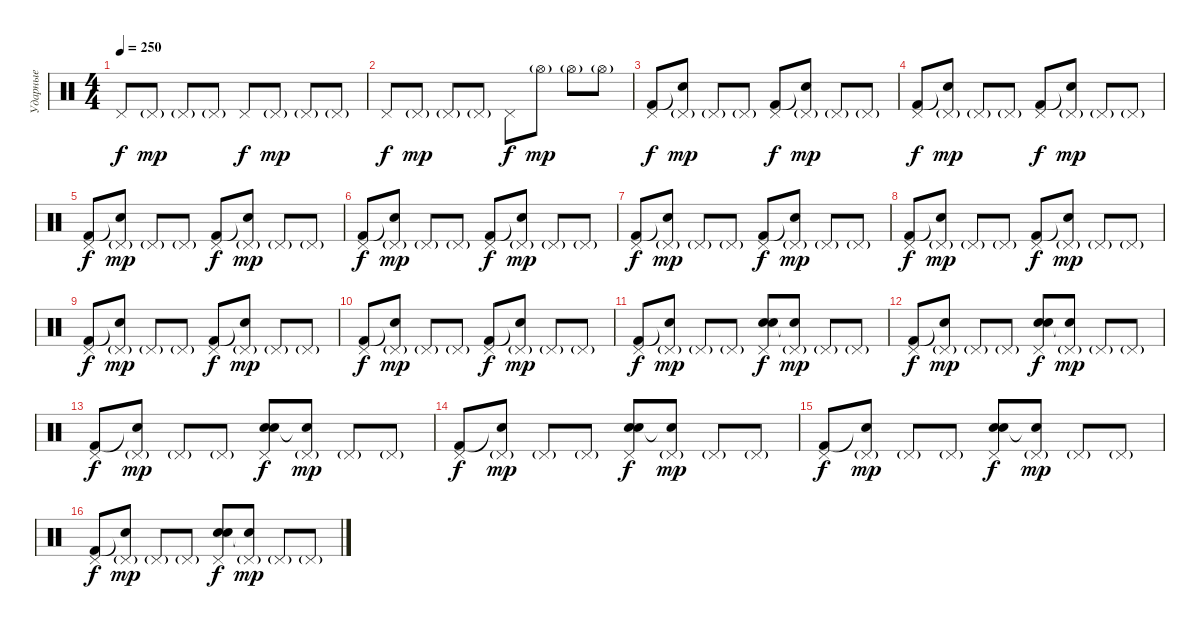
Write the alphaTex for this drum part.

\track ("Ударные" "Ударные") {instrument percussion}
\staff {score}
\articulation defaults
\ts (4 4)
\tempo 250
\clef neutral
\ks c "Pedal Hi-Hat (hit)".8{dy f} "Pedal Hi-Hat (hit)"{g}.8{dy mp} "Pedal Hi-Hat (hit)"{g}.8 "Pedal Hi-Hat (hit)"{g}.8 "Pedal Hi-Hat (hit)".8{dy f} "Pedal Hi-Hat (hit)"{g}.8{dy mp} "Pedal Hi-Hat (hit)"{g}.8 "Pedal Hi-Hat (hit)"{g}.8
|
"Pedal Hi-Hat (hit)".8{dy f} "Pedal Hi-Hat (hit)"{g}.8{dy mp} "Pedal Hi-Hat (hit)"{g}.8 "Pedal Hi-Hat (hit)"{g}.8 "Pedal Hi-Hat (hit)".8{dy f} "Hi-Hat (open)"{g}.8{dy mp} "Hi-Hat (open)"{g}.8 "Hi-Hat (open)"{g}.8 |
("Pedal Hi-Hat (hit)" "Kick (hit) 2").8{dy f} ("Pedal Hi-Hat (hit)"{g} "Snare (hit)"{t}).8{dy mp} "Pedal Hi-Hat (hit)"{g}.8 "Pedal Hi-Hat (hit)"{g}.8 ("Pedal Hi-Hat (hit)" "Kick (hit) 2").8{dy f} ("Pedal Hi-Hat (hit)"{g} "Snare (hit)"{t}).8{dy mp} "Pedal Hi-Hat (hit)"{g}.8 "Pedal Hi-Hat (hit)"{g}.8 |
("Pedal Hi-Hat (hit)" "Kick (hit) 2").8{dy f} ("Pedal Hi-Hat (hit)"{g} "Snare (hit)"{t}).8{dy mp} "Pedal Hi-Hat (hit)"{g}.8 "Pedal Hi-Hat (hit)"{g}.8 ("Pedal Hi-Hat (hit)" "Kick (hit) 2").8{dy f} ("Pedal Hi-Hat (hit)"{g} "Snare (hit)"{t}).8{dy mp} "Pedal Hi-Hat (hit)"{g}.8 "Pedal Hi-Hat (hit)"{g}.8 |
("Pedal Hi-Hat (hit)" "Kick (hit) 2").8{dy f} ("Pedal Hi-Hat (hit)"{g} "Snare (hit)"{t}).8{dy mp} "Pedal Hi-Hat (hit)"{g}.8 "Pedal Hi-Hat (hit)"{g}.8 ("Pedal Hi-Hat (hit)" "Kick (hit) 2").8{dy f} ("Pedal Hi-Hat (hit)"{g} "Snare (hit)"{t}).8{dy mp} "Pedal Hi-Hat (hit)"{g}.8 "Pedal Hi-Hat (hit)"{g}.8 |
("Pedal Hi-Hat (hit)" "Kick (hit) 2").8{dy f} ("Pedal Hi-Hat (hit)"{g} "Snare (hit)"{t}).8{dy mp} "Pedal Hi-Hat (hit)"{g}.8 "Pedal Hi-Hat (hit)"{g}.8 ("Pedal Hi-Hat (hit)" "Kick (hit) 2").8{dy f} ("Pedal Hi-Hat (hit)"{g} "Snare (hit)"{t}).8{dy mp} "Pedal Hi-Hat (hit)"{g}.8 "Pedal Hi-Hat (hit)"{g}.8 |
("Pedal Hi-Hat (hit)" "Kick (hit) 2").8{dy f} ("Pedal Hi-Hat (hit)"{g} "Snare (hit)"{t}).8{dy mp} "Pedal Hi-Hat (hit)"{g}.8 "Pedal Hi-Hat (hit)"{g}.8 ("Pedal Hi-Hat (hit)" "Kick (hit) 2").8{dy f} ("Pedal Hi-Hat (hit)"{g} "Snare (hit)"{t}).8{dy mp} "Pedal Hi-Hat (hit)"{g}.8 "Pedal Hi-Hat (hit)"{g}.8 |
("Pedal Hi-Hat (hit)" "Kick (hit) 2").8{dy f} ("Pedal Hi-Hat (hit)"{g} "Snare (hit)"{t}).8{dy mp} "Pedal Hi-Hat (hit)"{g}.8 "Pedal Hi-Hat (hit)"{g}.8 ("Pedal Hi-Hat (hit)" "Kick (hit) 2").8{dy f} ("Pedal Hi-Hat (hit)"{g} "Snare (hit)"{t}).8{dy mp} "Pedal Hi-Hat (hit)"{g}.8 "Pedal Hi-Hat (hit)"{g}.8 |
("Pedal Hi-Hat (hit)" "Kick (hit) 2").8{dy f} ("Pedal Hi-Hat (hit)"{g} "Snare (hit)"{t}).8{dy mp} "Pedal Hi-Hat (hit)"{g}.8 "Pedal Hi-Hat (hit)"{g}.8 ("Pedal Hi-Hat (hit)" "Kick (hit) 2").8{dy f} ("Pedal Hi-Hat (hit)"{g} "Snare (hit)"{t}).8{dy mp} "Pedal Hi-Hat (hit)"{g}.8 "Pedal Hi-Hat (hit)"{g}.8 |
("Pedal Hi-Hat (hit)" "Kick (hit) 2").8{dy f} ("Pedal Hi-Hat (hit)"{g} "Snare (hit)"{t}).8{dy mp} "Pedal Hi-Hat (hit)"{g}.8 "Pedal Hi-Hat (hit)"{g}.8 ("Pedal Hi-Hat (hit)" "Kick (hit) 2").8{dy f} ("Pedal Hi-Hat (hit)"{g} "Snare (hit)"{t}).8{dy mp} "Pedal Hi-Hat (hit)"{g}.8 "Pedal Hi-Hat (hit)"{g}.8 |
("Pedal Hi-Hat (hit)" "Kick (hit) 2").8{dy f} ("Pedal Hi-Hat (hit)"{g} "Snare (hit)"{t}).8{dy mp} "Pedal Hi-Hat (hit)"{g}.8 "Pedal Hi-Hat (hit)"{g}.8 ("Pedal Hi-Hat (hit)" "Electric Snare (hit)" "Hand Clap (hit)").8{dy f} ("Pedal Hi-Hat (hit)"{g} "Snare (hit)"{t}).8{dy mp} "Pedal Hi-Hat (hit)"{g}.8 "Pedal Hi-Hat (hit)"{g}.8 |
("Pedal Hi-Hat (hit)" "Kick (hit) 2").8{dy f} ("Pedal Hi-Hat (hit)"{g} "Snare (hit)"{t}).8{dy mp} "Pedal Hi-Hat (hit)"{g}.8 "Pedal Hi-Hat (hit)"{g}.8 ("Pedal Hi-Hat (hit)" "Electric Snare (hit)" "Hand Clap (hit)").8{dy f} ("Pedal Hi-Hat (hit)"{g} "Snare (hit)"{t}).8{dy mp} "Pedal Hi-Hat (hit)"{g}.8 "Pedal Hi-Hat (hit)"{g}.8 |
("Pedal Hi-Hat (hit)" "Kick (hit) 2").8{dy f} ("Pedal Hi-Hat (hit)"{g} "Snare (hit)"{t}).8{dy mp} "Pedal Hi-Hat (hit)"{g}.8 "Pedal Hi-Hat (hit)"{g}.8 ("Pedal Hi-Hat (hit)" "Electric Snare (hit)" "Hand Clap (hit)").8{dy f} ("Pedal Hi-Hat (hit)"{g} "Snare (hit)"{t}).8{dy mp} "Pedal Hi-Hat (hit)"{g}.8 "Pedal Hi-Hat (hit)"{g}.8 |
("Pedal Hi-Hat (hit)" "Kick (hit) 2").8{dy f} ("Pedal Hi-Hat (hit)"{g} "Snare (hit)"{t}).8{dy mp} "Pedal Hi-Hat (hit)"{g}.8 "Pedal Hi-Hat (hit)"{g}.8 ("Pedal Hi-Hat (hit)" "Electric Snare (hit)" "Hand Clap (hit)").8{dy f} ("Pedal Hi-Hat (hit)"{g} "Snare (hit)"{t}).8{dy mp} "Pedal Hi-Hat (hit)"{g}.8 "Pedal Hi-Hat (hit)"{g}.8 |
("Pedal Hi-Hat (hit)" "Kick (hit) 2").8{dy f} ("Pedal Hi-Hat (hit)"{g} "Snare (hit)"{t}).8{dy mp} "Pedal Hi-Hat (hit)"{g}.8 "Pedal Hi-Hat (hit)"{g}.8 ("Pedal Hi-Hat (hit)" "Electric Snare (hit)" "Hand Clap (hit)").8{dy f} ("Pedal Hi-Hat (hit)"{g} "Snare (hit)"{t}).8{dy mp} "Pedal Hi-Hat (hit)"{g}.8 "Pedal Hi-Hat (hit)"{g}.8 |
("Pedal Hi-Hat (hit)" "Kick (hit) 2").8{dy f} ("Pedal Hi-Hat (hit)"{g} "Snare (hit)"{t}).8{dy mp} "Pedal Hi-Hat (hit)"{g}.8 "Pedal Hi-Hat (hit)"{g}.8 ("Pedal Hi-Hat (hit)" "Electric Snare (hit)" "Hand Clap (hit)").8{dy f} ("Pedal Hi-Hat (hit)"{g} "Snare (hit)"{t}).8{dy mp} "Pedal Hi-Hat (hit)"{g}.8 "Pedal Hi-Hat (hit)"{g}.8
